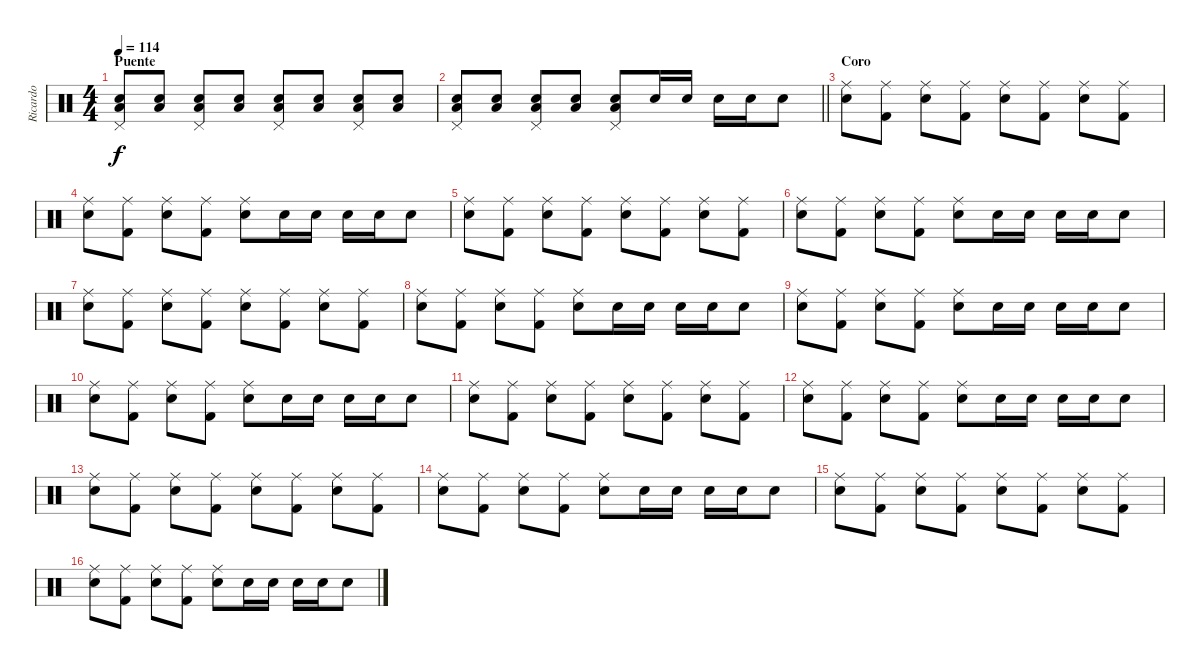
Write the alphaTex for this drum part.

\track ("Ricardo" "Ricardo") {instrument percussion}
\staff {score}
\articulation defaults
\ts (4 4)
\section ("" "Puente")
\tempo 114
\clef neutral
\ks c
("Pedal Hi-Hat (hit)" "Snare (hit) 2" "Low Tom (hit)").8{dy f} ("Snare (hit) 2" "Low Tom (hit)").8 ("Pedal Hi-Hat (hit)" "Snare (hit) 2" "Low Tom (hit)").8 ("Snare (hit) 2" "Low Tom (hit)").8 ("Pedal Hi-Hat (hit)" "Snare (hit) 2" "Low Tom (hit)").8 ("Snare (hit) 2" "Low Tom (hit)").8 ("Pedal Hi-Hat (hit)" "Snare (hit) 2" "Low Tom (hit)").8 ("Snare (hit) 2" "Low Tom (hit)").8 |
\barLineRight lightlight
("Pedal Hi-Hat (hit)" "Snare (hit) 2" "Low Tom (hit)").8 ("Snare (hit) 2" "Low Tom (hit)").8 ("Pedal Hi-Hat (hit)" "Snare (hit) 2" "Low Tom (hit)").8 ("Snare (hit) 2" "Low Tom (hit)").8 ("Pedal Hi-Hat (hit)" "Snare (hit) 2" "Low Tom (hit)").8 "Snare (hit) 2".16 "Snare (hit) 2".16 "Snare (hit) 2".16 "Snare (hit) 2".16 "Snare (hit) 2".8 |
\section ("" "Coro")
("Ride (middle)" "Snare (hit) 2").8 ("Ride (middle)" "Kick (hit) 2").8 ("Ride (middle)" "Snare (hit) 2").8 ("Ride (middle)" "Kick (hit) 2").8 ("Ride (middle)" "Snare (hit) 2").8 ("Ride (middle)" "Kick (hit) 2").8 ("Ride (middle)" "Snare (hit) 2").8 ("Ride (middle)" "Kick (hit) 2").8 |
("Ride (middle)" "Snare (hit) 2").8 ("Ride (middle)" "Kick (hit) 2").8 ("Ride (middle)" "Snare (hit) 2").8 ("Ride (middle)" "Kick (hit) 2").8 ("Ride (middle)" "Snare (hit) 2").8 "Snare (hit) 2".16 "Snare (hit) 2".16 "Snare (hit) 2".16 "Snare (hit) 2".16 "Snare (hit) 2".8 |
("Ride (middle)" "Snare (hit) 2").8 ("Ride (middle)" "Kick (hit) 2").8 ("Ride (middle)" "Snare (hit) 2").8 ("Ride (middle)" "Kick (hit) 2").8 ("Ride (middle)" "Snare (hit) 2").8 ("Ride (middle)" "Kick (hit) 2").8 ("Ride (middle)" "Snare (hit) 2").8 ("Ride (middle)" "Kick (hit) 2").8 |
("Ride (middle)" "Snare (hit) 2").8 ("Ride (middle)" "Kick (hit) 2").8 ("Ride (middle)" "Snare (hit) 2").8 ("Ride (middle)" "Kick (hit) 2").8 ("Ride (middle)" "Snare (hit) 2").8 "Snare (hit) 2".16 "Snare (hit) 2".16 "Snare (hit) 2".16 "Snare (hit) 2".16 "Snare (hit) 2".8 |
("Ride (middle)" "Snare (hit) 2").8 ("Ride (middle)" "Kick (hit) 2").8 ("Ride (middle)" "Snare (hit) 2").8 ("Ride (middle)" "Kick (hit) 2").8 ("Ride (middle)" "Snare (hit) 2").8 ("Ride (middle)" "Kick (hit) 2").8 ("Ride (middle)" "Snare (hit) 2").8 ("Ride (middle)" "Kick (hit) 2").8 |
("Ride (middle)" "Snare (hit) 2").8 ("Ride (middle)" "Kick (hit) 2").8 ("Ride (middle)" "Snare (hit) 2").8 ("Ride (middle)" "Kick (hit) 2").8 ("Ride (middle)" "Snare (hit) 2").8 "Snare (hit) 2".16 "Snare (hit) 2".16 "Snare (hit) 2".16 "Snare (hit) 2".16 "Snare (hit) 2".8 |
("Ride (middle)" "Snare (hit) 2").8 ("Ride (middle)" "Kick (hit) 2").8 ("Ride (middle)" "Snare (hit) 2").8 ("Ride (middle)" "Kick (hit) 2").8 ("Ride (middle)" "Snare (hit) 2").8 "Snare (hit) 2".16 "Snare (hit) 2".16 "Snare (hit) 2".16 "Snare (hit) 2".16 "Snare (hit) 2".8 |
("Ride (middle)" "Snare (hit) 2").8 ("Ride (middle)" "Kick (hit) 2").8 ("Ride (middle)" "Snare (hit) 2").8 ("Ride (middle)" "Kick (hit) 2").8 ("Ride (middle)" "Snare (hit) 2").8 "Snare (hit) 2".16 "Snare (hit) 2".16 "Snare (hit) 2".16 "Snare (hit) 2".16 "Snare (hit) 2".8 |
("Ride (middle)" "Snare (hit) 2").8 ("Ride (middle)" "Kick (hit) 2").8 ("Ride (middle)" "Snare (hit) 2").8 ("Ride (middle)" "Kick (hit) 2").8 ("Ride (middle)" "Snare (hit) 2").8 ("Ride (middle)" "Kick (hit) 2").8 ("Ride (middle)" "Snare (hit) 2").8 ("Ride (middle)" "Kick (hit) 2").8 |
("Ride (middle)" "Snare (hit) 2").8 ("Ride (middle)" "Kick (hit) 2").8 ("Ride (middle)" "Snare (hit) 2").8 ("Ride (middle)" "Kick (hit) 2").8 ("Ride (middle)" "Snare (hit) 2").8 "Snare (hit) 2".16 "Snare (hit) 2".16 "Snare (hit) 2".16 "Snare (hit) 2".16 "Snare (hit) 2".8 |
("Ride (middle)" "Snare (hit) 2").8 ("Ride (middle)" "Kick (hit) 2").8 ("Ride (middle)" "Snare (hit) 2").8 ("Ride (middle)" "Kick (hit) 2").8 ("Ride (middle)" "Snare (hit) 2").8 ("Ride (middle)" "Kick (hit) 2").8 ("Ride (middle)" "Snare (hit) 2").8 ("Ride (middle)" "Kick (hit) 2").8 |
("Ride (middle)" "Snare (hit) 2").8 ("Ride (middle)" "Kick (hit) 2").8 ("Ride (middle)" "Snare (hit) 2").8 ("Ride (middle)" "Kick (hit) 2").8 ("Ride (middle)" "Snare (hit) 2").8 "Snare (hit) 2".16 "Snare (hit) 2".16 "Snare (hit) 2".16 "Snare (hit) 2".16 "Snare (hit) 2".8 |
("Ride (middle)" "Snare (hit) 2").8 ("Ride (middle)" "Kick (hit) 2").8 ("Ride (middle)" "Snare (hit) 2").8 ("Ride (middle)" "Kick (hit) 2").8 ("Ride (middle)" "Snare (hit) 2").8 ("Ride (middle)" "Kick (hit) 2").8 ("Ride (middle)" "Snare (hit) 2").8 ("Ride (middle)" "Kick (hit) 2").8 |
("Ride (middle)" "Snare (hit) 2").8 ("Ride (middle)" "Kick (hit) 2").8 ("Ride (middle)" "Snare (hit) 2").8 ("Ride (middle)" "Kick (hit) 2").8 ("Ride (middle)" "Snare (hit) 2").8 "Snare (hit) 2".16 "Snare (hit) 2".16 "Snare (hit) 2".16 "Snare (hit) 2".16 "Snare (hit) 2".8
